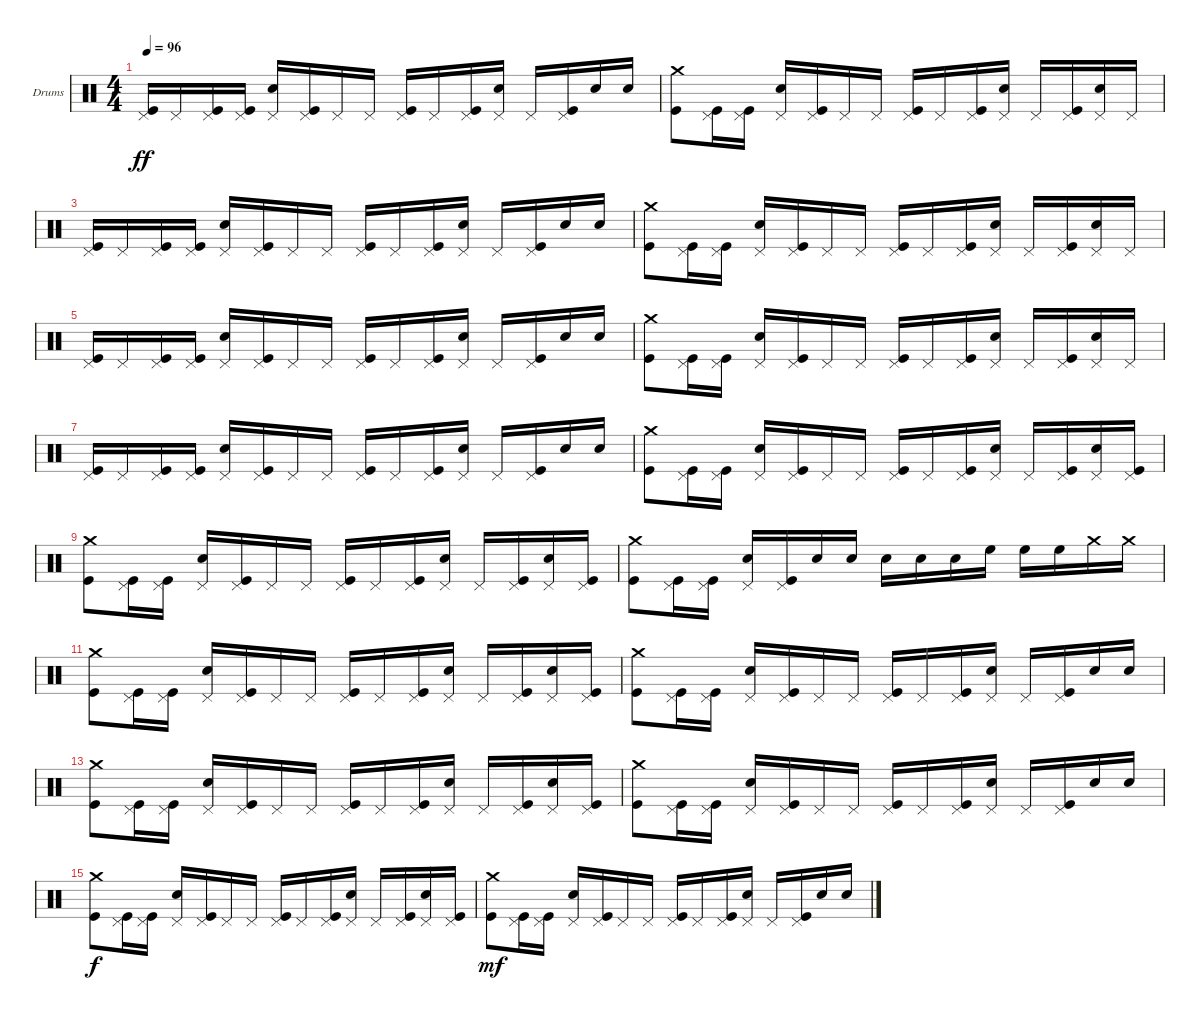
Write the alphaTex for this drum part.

\bracketExtendMode nobrackets
\firstSystemTrackNameOrientation horizontal
\otherSystemsTrackNameOrientation horizontal
\defaultBarNumberDisplay FirstOfSystem
\track ("Drums" "Drums") {instrument percussion}
\staff {score}
\articulation defaults
\ts (4 4)
\tempo 96
\clef neutral
\ks c
("Kick (hit)" "Pedal Hi-Hat (hit)").16{dy ff} "Pedal Hi-Hat (hit)".16 ("Kick (hit)" "Pedal Hi-Hat (hit)").16 ("Kick (hit)" "Pedal Hi-Hat (hit)").16 ("Snare (hit) 2" "Pedal Hi-Hat (hit)").16 ("Kick (hit)" "Pedal Hi-Hat (hit)").16 "Pedal Hi-Hat (hit)".16 "Pedal Hi-Hat (hit)".16 ("Kick (hit)" "Pedal Hi-Hat (hit)").16 "Pedal Hi-Hat (hit)".16 ("Kick (hit)" "Pedal Hi-Hat (hit)").16 ("Snare (hit) 2" "Pedal Hi-Hat (hit)").16 "Pedal Hi-Hat (hit)".16 ("Kick (hit)" "Pedal Hi-Hat (hit)").16 "Snare (hit) 2".16 "Snare (hit) 2".16 |
("Kick (hit)" "Crash medium (hit)").8 ("Kick (hit)" "Pedal Hi-Hat (hit)").16 ("Kick (hit)" "Pedal Hi-Hat (hit)").16 ("Snare (hit) 2" "Pedal Hi-Hat (hit)").16 ("Kick (hit)" "Pedal Hi-Hat (hit)").16 "Pedal Hi-Hat (hit)".16 "Pedal Hi-Hat (hit)".16 ("Kick (hit)" "Pedal Hi-Hat (hit)").16 "Pedal Hi-Hat (hit)".16 ("Kick (hit)" "Pedal Hi-Hat (hit)").16 ("Snare (hit) 2" "Pedal Hi-Hat (hit)").16 "Pedal Hi-Hat (hit)".16 ("Kick (hit)" "Pedal Hi-Hat (hit)").16 ("Snare (hit) 2" "Pedal Hi-Hat (hit)").16 "Pedal Hi-Hat (hit)".16 |
("Kick (hit)" "Pedal Hi-Hat (hit)").16 "Pedal Hi-Hat (hit)".16 ("Kick (hit)" "Pedal Hi-Hat (hit)").16 ("Kick (hit)" "Pedal Hi-Hat (hit)").16 ("Snare (hit) 2" "Pedal Hi-Hat (hit)").16 ("Kick (hit)" "Pedal Hi-Hat (hit)").16 "Pedal Hi-Hat (hit)".16 "Pedal Hi-Hat (hit)".16 ("Kick (hit)" "Pedal Hi-Hat (hit)").16 "Pedal Hi-Hat (hit)".16 ("Kick (hit)" "Pedal Hi-Hat (hit)").16 ("Snare (hit) 2" "Pedal Hi-Hat (hit)").16 "Pedal Hi-Hat (hit)".16 ("Kick (hit)" "Pedal Hi-Hat (hit)").16 "Snare (hit) 2".16 "Snare (hit) 2".16 |
("Kick (hit)" "Crash medium (hit)").8 ("Kick (hit)" "Pedal Hi-Hat (hit)").16 ("Kick (hit)" "Pedal Hi-Hat (hit)").16 ("Snare (hit) 2" "Pedal Hi-Hat (hit)").16 ("Kick (hit)" "Pedal Hi-Hat (hit)").16 "Pedal Hi-Hat (hit)".16 "Pedal Hi-Hat (hit)".16 ("Kick (hit)" "Pedal Hi-Hat (hit)").16 "Pedal Hi-Hat (hit)".16 ("Kick (hit)" "Pedal Hi-Hat (hit)").16 ("Snare (hit) 2" "Pedal Hi-Hat (hit)").16 "Pedal Hi-Hat (hit)".16 ("Kick (hit)" "Pedal Hi-Hat (hit)").16 ("Snare (hit) 2" "Pedal Hi-Hat (hit)").16 "Pedal Hi-Hat (hit)".16 |
("Kick (hit)" "Pedal Hi-Hat (hit)").16 "Pedal Hi-Hat (hit)".16 ("Kick (hit)" "Pedal Hi-Hat (hit)").16 ("Kick (hit)" "Pedal Hi-Hat (hit)").16 ("Snare (hit) 2" "Pedal Hi-Hat (hit)").16 ("Kick (hit)" "Pedal Hi-Hat (hit)").16 "Pedal Hi-Hat (hit)".16 "Pedal Hi-Hat (hit)".16 ("Kick (hit)" "Pedal Hi-Hat (hit)").16 "Pedal Hi-Hat (hit)".16 ("Kick (hit)" "Pedal Hi-Hat (hit)").16 ("Snare (hit) 2" "Pedal Hi-Hat (hit)").16 "Pedal Hi-Hat (hit)".16 ("Kick (hit)" "Pedal Hi-Hat (hit)").16 "Snare (hit) 2".16 "Snare (hit) 2".16 |
("Kick (hit)" "Crash medium (hit)").8 ("Kick (hit)" "Pedal Hi-Hat (hit)").16 ("Kick (hit)" "Pedal Hi-Hat (hit)").16 ("Snare (hit) 2" "Pedal Hi-Hat (hit)").16 ("Kick (hit)" "Pedal Hi-Hat (hit)").16 "Pedal Hi-Hat (hit)".16 "Pedal Hi-Hat (hit)".16 ("Kick (hit)" "Pedal Hi-Hat (hit)").16 "Pedal Hi-Hat (hit)".16 ("Kick (hit)" "Pedal Hi-Hat (hit)").16 ("Snare (hit) 2" "Pedal Hi-Hat (hit)").16 "Pedal Hi-Hat (hit)".16 ("Kick (hit)" "Pedal Hi-Hat (hit)").16 ("Snare (hit) 2" "Pedal Hi-Hat (hit)").16 "Pedal Hi-Hat (hit)".16 |
("Kick (hit)" "Pedal Hi-Hat (hit)").16 "Pedal Hi-Hat (hit)".16 ("Kick (hit)" "Pedal Hi-Hat (hit)").16 ("Kick (hit)" "Pedal Hi-Hat (hit)").16 ("Snare (hit) 2" "Pedal Hi-Hat (hit)").16 ("Kick (hit)" "Pedal Hi-Hat (hit)").16 "Pedal Hi-Hat (hit)".16 "Pedal Hi-Hat (hit)".16 ("Kick (hit)" "Pedal Hi-Hat (hit)").16 "Pedal Hi-Hat (hit)".16 ("Kick (hit)" "Pedal Hi-Hat (hit)").16 ("Snare (hit) 2" "Pedal Hi-Hat (hit)").16 "Pedal Hi-Hat (hit)".16 ("Kick (hit)" "Pedal Hi-Hat (hit)").16 "Snare (hit) 2".16 "Snare (hit) 2".16 |
("Kick (hit)" "Crash medium (hit)").8 ("Kick (hit)" "Pedal Hi-Hat (hit)").16 ("Kick (hit)" "Pedal Hi-Hat (hit)").16 ("Snare (hit) 2" "Pedal Hi-Hat (hit)").16 ("Kick (hit)" "Pedal Hi-Hat (hit)").16 "Pedal Hi-Hat (hit)".16 "Pedal Hi-Hat (hit)".16 ("Kick (hit)" "Pedal Hi-Hat (hit)").16 "Pedal Hi-Hat (hit)".16 ("Kick (hit)" "Pedal Hi-Hat (hit)").16 ("Snare (hit) 2" "Pedal Hi-Hat (hit)").16 "Pedal Hi-Hat (hit)".16 ("Kick (hit)" "Pedal Hi-Hat (hit)").16 ("Snare (hit) 2" "Pedal Hi-Hat (hit)").16 ("Kick (hit)" "Pedal Hi-Hat (hit)").16 |
("Kick (hit)" "Crash medium (hit)").8 ("Kick (hit)" "Pedal Hi-Hat (hit)").16 ("Kick (hit)" "Pedal Hi-Hat (hit)").16 ("Snare (hit) 2" "Pedal Hi-Hat (hit)").16 ("Kick (hit)" "Pedal Hi-Hat (hit)").16 "Pedal Hi-Hat (hit)".16 "Pedal Hi-Hat (hit)".16 ("Kick (hit)" "Pedal Hi-Hat (hit)").16 "Pedal Hi-Hat (hit)".16 ("Kick (hit)" "Pedal Hi-Hat (hit)").16 ("Snare (hit) 2" "Pedal Hi-Hat (hit)").16 "Pedal Hi-Hat (hit)".16 ("Kick (hit)" "Pedal Hi-Hat (hit)").16 ("Snare (hit) 2" "Pedal Hi-Hat (hit)").16 ("Kick (hit)" "Pedal Hi-Hat (hit)").16 |
("Kick (hit)" "Crash medium (hit)").8 ("Kick (hit)" "Pedal Hi-Hat (hit)").16 ("Kick (hit)" "Pedal Hi-Hat (hit)").16 ("Snare (hit) 2" "Pedal Hi-Hat (hit)").16 ("Kick (hit)" "Pedal Hi-Hat (hit)").16 "Snare (hit) 2".16 "Snare (hit) 2".16 "Snare (hit) 2".16 "Snare (hit) 2".16 "Snare (hit) 2".16 "High Floor Tom (hit)".16 "High Floor Tom (hit)".16 "High Floor Tom (hit)".16 "Crash medium (hit)".16 "Crash medium (hit)".16 |
("Kick (hit)" "Crash medium (hit)").8 ("Kick (hit)" "Pedal Hi-Hat (hit)").16 ("Kick (hit)" "Pedal Hi-Hat (hit)").16 ("Snare (hit) 2" "Pedal Hi-Hat (hit)").16 ("Kick (hit)" "Pedal Hi-Hat (hit)").16 "Pedal Hi-Hat (hit)".16 "Pedal Hi-Hat (hit)".16 ("Kick (hit)" "Pedal Hi-Hat (hit)").16 "Pedal Hi-Hat (hit)".16 ("Kick (hit)" "Pedal Hi-Hat (hit)").16 ("Snare (hit) 2" "Pedal Hi-Hat (hit)").16 "Pedal Hi-Hat (hit)".16 ("Kick (hit)" "Pedal Hi-Hat (hit)").16 ("Snare (hit) 2" "Pedal Hi-Hat (hit)").16 ("Kick (hit)" "Pedal Hi-Hat (hit)").16 |
("Kick (hit)" "Crash medium (hit)").8 ("Kick (hit)" "Pedal Hi-Hat (hit)").16 ("Kick (hit)" "Pedal Hi-Hat (hit)").16 ("Snare (hit) 2" "Pedal Hi-Hat (hit)").16 ("Kick (hit)" "Pedal Hi-Hat (hit)").16 "Pedal Hi-Hat (hit)".16 "Pedal Hi-Hat (hit)".16 ("Kick (hit)" "Pedal Hi-Hat (hit)").16 "Pedal Hi-Hat (hit)".16 ("Kick (hit)" "Pedal Hi-Hat (hit)").16 ("Snare (hit) 2" "Pedal Hi-Hat (hit)").16 "Pedal Hi-Hat (hit)".16 ("Kick (hit)" "Pedal Hi-Hat (hit)").16 "Snare (hit) 2".16 "Snare (hit) 2".16 |
("Kick (hit)" "Crash medium (hit)").8 ("Kick (hit)" "Pedal Hi-Hat (hit)").16 ("Kick (hit)" "Pedal Hi-Hat (hit)").16 ("Snare (hit) 2" "Pedal Hi-Hat (hit)").16 ("Kick (hit)" "Pedal Hi-Hat (hit)").16 "Pedal Hi-Hat (hit)".16 "Pedal Hi-Hat (hit)".16 ("Kick (hit)" "Pedal Hi-Hat (hit)").16 "Pedal Hi-Hat (hit)".16 ("Kick (hit)" "Pedal Hi-Hat (hit)").16 ("Snare (hit) 2" "Pedal Hi-Hat (hit)").16 "Pedal Hi-Hat (hit)".16 ("Kick (hit)" "Pedal Hi-Hat (hit)").16 ("Snare (hit) 2" "Pedal Hi-Hat (hit)").16 ("Kick (hit)" "Pedal Hi-Hat (hit)").16 |
("Kick (hit)" "Crash medium (hit)").8 ("Kick (hit)" "Pedal Hi-Hat (hit)").16 ("Kick (hit)" "Pedal Hi-Hat (hit)").16 ("Snare (hit) 2" "Pedal Hi-Hat (hit)").16 ("Kick (hit)" "Pedal Hi-Hat (hit)").16 "Pedal Hi-Hat (hit)".16 "Pedal Hi-Hat (hit)".16 ("Kick (hit)" "Pedal Hi-Hat (hit)").16 "Pedal Hi-Hat (hit)".16 ("Kick (hit)" "Pedal Hi-Hat (hit)").16 ("Snare (hit) 2" "Pedal Hi-Hat (hit)").16 "Pedal Hi-Hat (hit)".16 ("Kick (hit)" "Pedal Hi-Hat (hit)").16 "Snare (hit) 2".16 "Snare (hit) 2".16 |
("Kick (hit)" "Crash medium (hit)").8{dy f} ("Kick (hit)" "Pedal Hi-Hat (hit)").16 ("Kick (hit)" "Pedal Hi-Hat (hit)").16 ("Snare (hit) 2" "Pedal Hi-Hat (hit)").16 ("Kick (hit)" "Pedal Hi-Hat (hit)").16 "Pedal Hi-Hat (hit)".16 "Pedal Hi-Hat (hit)".16 ("Kick (hit)" "Pedal Hi-Hat (hit)").16 "Pedal Hi-Hat (hit)".16 ("Kick (hit)" "Pedal Hi-Hat (hit)").16 ("Snare (hit) 2" "Pedal Hi-Hat (hit)").16 "Pedal Hi-Hat (hit)".16 ("Kick (hit)" "Pedal Hi-Hat (hit)").16 ("Snare (hit) 2" "Pedal Hi-Hat (hit)").16 ("Kick (hit)" "Pedal Hi-Hat (hit)").16 |
("Kick (hit)" "Crash medium (hit)").8{dy mf} ("Kick (hit)" "Pedal Hi-Hat (hit)").16 ("Kick (hit)" "Pedal Hi-Hat (hit)").16 ("Snare (hit) 2" "Pedal Hi-Hat (hit)").16 ("Kick (hit)" "Pedal Hi-Hat (hit)").16 "Pedal Hi-Hat (hit)".16 "Pedal Hi-Hat (hit)".16 ("Kick (hit)" "Pedal Hi-Hat (hit)").16 "Pedal Hi-Hat (hit)".16 ("Kick (hit)" "Pedal Hi-Hat (hit)").16 ("Snare (hit) 2" "Pedal Hi-Hat (hit)").16 "Pedal Hi-Hat (hit)".16 ("Kick (hit)" "Pedal Hi-Hat (hit)").16 "Snare (hit) 2".16 "Snare (hit) 2".16
